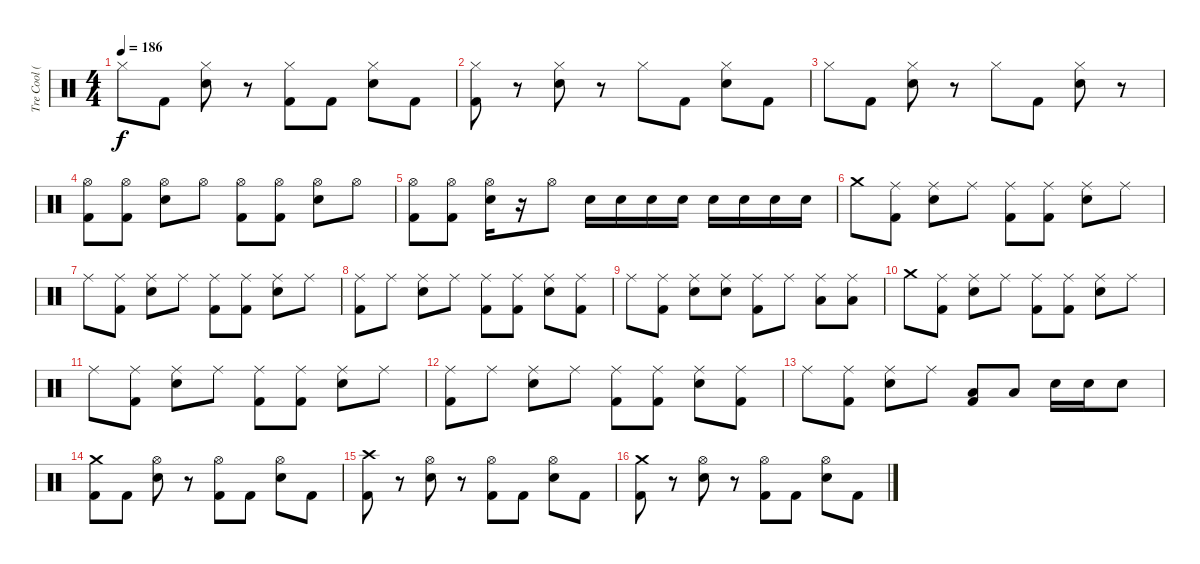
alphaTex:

\track ("Tre Cool (Drums)" "Tre Cool (") {instrument percussion}
\staff {score}
\articulation defaults
\ts (4 4)
\tempo 186
\clef neutral
\ks c "Hi-Hat (closed)".8{dy f} "Kick (hit) 2".8
("Hi-Hat (closed)" "Snare (hit) 2").8 r.8 ("Hi-Hat (closed)" "Kick (hit) 2").8 "Kick (hit) 2".8 ("Hi-Hat (closed)" "Snare (hit) 2").8 "Kick (hit) 2".8 |
("Kick (hit) 2" "Hi-Hat (closed)").8 r.8 ("Snare (hit) 2" "Hi-Hat (closed)").8 r.8 "Hi-Hat (closed)".8 "Kick (hit) 2".8 ("Snare (hit) 2" "Hi-Hat (closed)").8 "Kick (hit) 2".8 |
"Hi-Hat (closed)".8 "Kick (hit) 2".8 ("Snare (hit) 2" "Hi-Hat (closed)").8 r.8 "Hi-Hat (closed)".8 "Kick (hit) 2".8 ("Snare (hit) 2" "Hi-Hat (closed)").8 r.8 |
("Hi-Hat (open)" "Kick (hit) 2").8 ("Kick (hit) 2" "Hi-Hat (open)").8 ("Hi-Hat (open)" "Snare (hit) 2").8 "Hi-Hat (open)".8 ("Hi-Hat (open)" "Kick (hit) 2").8 ("Kick (hit) 2" "Hi-Hat (open)").8 ("Hi-Hat (open)" "Snare (hit) 2").8 "Hi-Hat (open)".8 |
("Hi-Hat (open)" "Kick (hit) 2").8 ("Hi-Hat (open)" "Kick (hit) 2").8 ("Hi-Hat (open)" "Snare (hit) 2").16 r.16 "Hi-Hat (open)".8 "Snare (hit) 2".16 "Snare (hit) 2".16 "Snare (hit) 2".16 "Snare (hit) 2".16 "Snare (hit) 2".16 "Snare (hit) 2".16 "Snare (hit) 2".16 "Snare (hit) 2".16 |
"Crash medium (hit)".8 ("Ride (middle)" "Kick (hit) 2").8 ("Ride (middle)" "Snare (hit) 2").8 "Ride (middle)".8 ("Ride (middle)" "Kick (hit) 2").8 ("Ride (middle)" "Kick (hit) 2").8 ("Ride (middle)" "Snare (hit) 2").8 "Ride (middle)".8 |
"Ride (middle)".8 ("Ride (middle)" "Kick (hit) 2").8 ("Ride (middle)" "Snare (hit) 2").8 "Ride (middle)".8 ("Ride (middle)" "Kick (hit) 2").8 ("Ride (middle)" "Kick (hit) 2").8 ("Ride (middle)" "Snare (hit) 2").8 "Ride (middle)".8 |
("Ride (middle)" "Kick (hit) 2").8 "Ride (middle)".8 ("Ride (middle)" "Snare (hit) 2").8 "Ride (middle)".8 ("Ride (middle)" "Kick (hit) 2").8 ("Kick (hit) 2" "Ride (middle)").8 ("Ride (middle)" "Snare (hit) 2").8 ("Ride (middle)" "Kick (hit) 2").8 |
"Ride (middle)".8 ("Ride (middle)" "Kick (hit) 2").8 ("Ride (middle)" "Snare (hit) 2").8 ("Ride (middle)" "Snare (hit) 2").8 ("Ride (middle)" "Kick (hit) 2").8 "Ride (middle)".8 ("Ride (middle)" "Low Tom (hit)").8 ("Ride (middle)" "Low Tom (hit)").8 |
"Crash medium (hit)".8 ("Ride (middle)" "Kick (hit) 2").8 ("Ride (middle)" "Snare (hit) 2").8 "Ride (middle)".8 ("Ride (middle)" "Kick (hit) 2").8 ("Ride (middle)" "Kick (hit) 2").8 ("Ride (middle)" "Snare (hit) 2").8 "Ride (middle)".8 |
"Ride (middle)".8 ("Kick (hit) 2" "Ride (middle)").8 ("Snare (hit) 2" "Ride (middle)").8 "Ride (middle)".8 ("Kick (hit) 2" "Ride (middle)").8 ("Kick (hit) 2" "Ride (middle)").8 ("Snare (hit) 2" "Ride (middle)").8 "Ride (middle)".8 |
("Kick (hit) 2" "Ride (middle)").8 "Ride (middle)".8 ("Snare (hit) 2" "Ride (middle)").8 "Ride (middle)".8 ("Kick (hit) 2" "Ride (middle)").8 ("Kick (hit) 2" "Ride (middle)").8 ("Snare (hit) 2" "Ride (middle)").8 ("Kick (hit) 2" "Ride (middle)").8 |
"Ride (middle)".8 ("Ride (middle)" "Kick (hit) 2").8 ("Snare (hit) 2" "Ride (middle)").8 "Ride (middle)".8 ("Low Tom (hit)" "Kick (hit) 2").8 "Low Tom (hit)".8 "Snare (hit) 2".16 "Snare (hit) 2".16 "Snare (hit) 2".8 |
("Kick (hit) 2" "Crash medium (hit)").8 "Kick (hit) 2".8 ("Snare (hit) 2" "Hi-Hat (open)").8 r.8 ("Kick (hit) 2" "Hi-Hat (open)").8 "Kick (hit) 2".8 ("Snare (hit) 2" "Hi-Hat (open)").8 "Kick (hit) 2".8 |
("Kick (hit) 2" "Crash high (hit)").8 r.8 ("Snare (hit) 2" "Hi-Hat (open)").8 r.8 ("Kick (hit) 2" "Hi-Hat (open)").8 "Kick (hit) 2".8 ("Snare (hit) 2" "Hi-Hat (open)").8 "Kick (hit) 2".8 |
("Crash medium (hit)" "Kick (hit) 2").8 r.8 ("Hi-Hat (open)" "Snare (hit) 2").8 r.8 ("Hi-Hat (open)" "Kick (hit) 2").8 "Kick (hit) 2".8 ("Hi-Hat (open)" "Snare (hit) 2").8 "Kick (hit) 2".8
